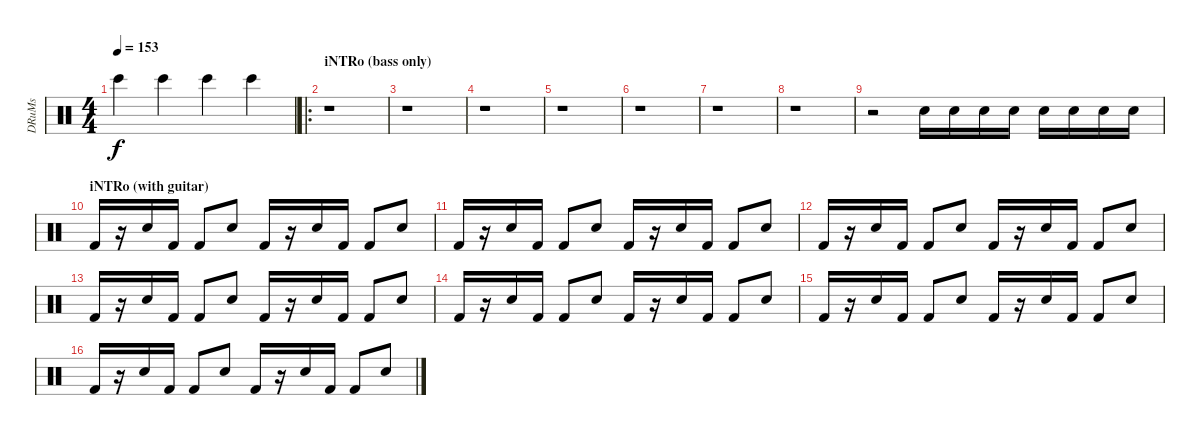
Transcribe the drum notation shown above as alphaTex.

\track ("DRuMs" "DRuMs") {instrument percussion}
\staff {score}
\articulation defaults
\ts (4 4)
\section ("" "")
\tempo 153
\clef neutral
\ks c "Bongo High (hit)".4{dy f} "Bongo High (hit)".4 "Bongo High (hit)".4 "Bongo High (hit)".4
|
\ro
\section ("" "iNTRo (bass only)")
r.1 |
r.1 |
r.1 |
r.1 |
r.1 |
r.1 |
r.1 |
r.2 "Metronome (bell)".16 "Metronome (bell)".16 "Metronome (bell)".16 "Metronome (bell)".16 "Metronome (bell)".16 "Metronome (bell)".16 "Metronome (bell)".16 "Metronome (bell)".16 |
\section ("" "iNTRo (with guitar)")
"Kick (hit) 2".16 r.16 "Electric Snare (hit)".16 "Kick (hit) 2".16 "Kick (hit) 2".8 "Electric Snare (hit)".8 "Kick (hit) 2".16 r.16 "Electric Snare (hit)".16 "Kick (hit) 2".16 "Kick (hit) 2".8 "Electric Snare (hit)".8 |
"Kick (hit) 2".16 r.16 "Electric Snare (hit)".16 "Kick (hit) 2".16 "Kick (hit) 2".8 "Electric Snare (hit)".8 "Kick (hit) 2".16 r.16 "Electric Snare (hit)".16 "Kick (hit) 2".16 "Kick (hit) 2".8 "Electric Snare (hit)".8 |
"Kick (hit) 2".16 r.16 "Electric Snare (hit)".16 "Kick (hit) 2".16 "Kick (hit) 2".8 "Electric Snare (hit)".8 "Kick (hit) 2".16 r.16 "Electric Snare (hit)".16 "Kick (hit) 2".16 "Kick (hit) 2".8 "Electric Snare (hit)".8 |
"Kick (hit) 2".16 r.16 "Electric Snare (hit)".16 "Kick (hit) 2".16 "Kick (hit) 2".8 "Electric Snare (hit)".8 "Kick (hit) 2".16 r.16 "Electric Snare (hit)".16 "Kick (hit) 2".16 "Kick (hit) 2".8 "Electric Snare (hit)".8 |
"Kick (hit) 2".16 r.16 "Electric Snare (hit)".16 "Kick (hit) 2".16 "Kick (hit) 2".8 "Electric Snare (hit)".8 "Kick (hit) 2".16 r.16 "Electric Snare (hit)".16 "Kick (hit) 2".16 "Kick (hit) 2".8 "Electric Snare (hit)".8 |
"Kick (hit) 2".16 r.16 "Electric Snare (hit)".16 "Kick (hit) 2".16 "Kick (hit) 2".8 "Electric Snare (hit)".8 "Kick (hit) 2".16 r.16 "Electric Snare (hit)".16 "Kick (hit) 2".16 "Kick (hit) 2".8 "Electric Snare (hit)".8 |
"Kick (hit) 2".16 r.16 "Electric Snare (hit)".16 "Kick (hit) 2".16 "Kick (hit) 2".8 "Electric Snare (hit)".8 "Kick (hit) 2".16 r.16 "Electric Snare (hit)".16 "Kick (hit) 2".16 "Kick (hit) 2".8 "Electric Snare (hit)".8
